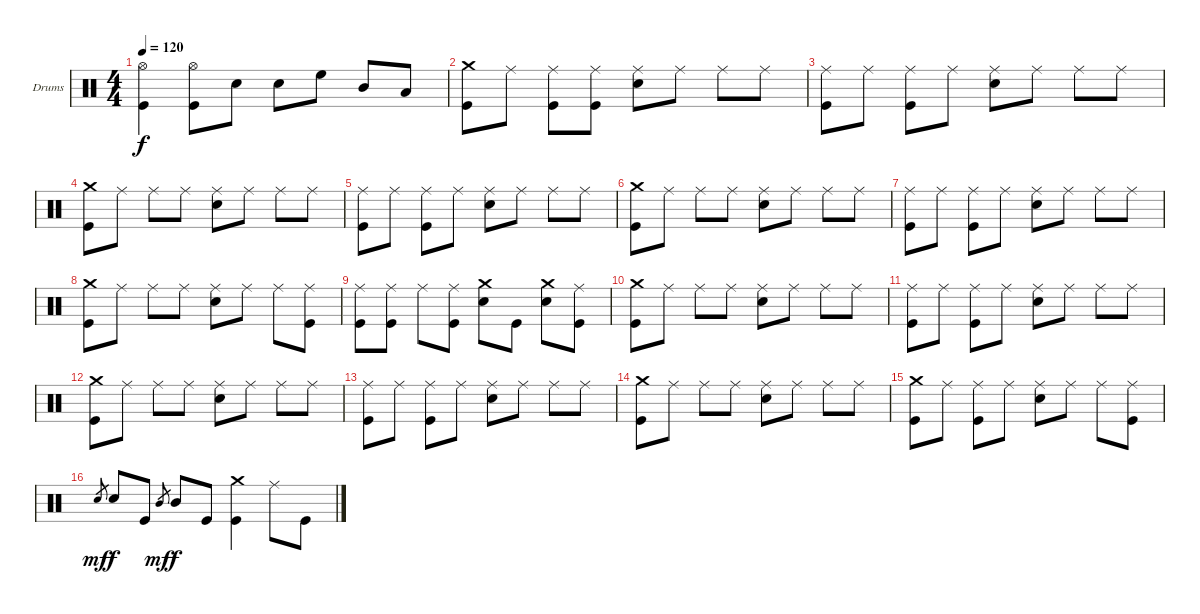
\bracketExtendMode groupsimilarinstruments
\firstSystemTrackNameOrientation horizontal
\otherSystemsTrackNameOrientation horizontal
\track ("Drumkit (Christoph)" "Drums") {instrument percussion}
\staff {score}
\articulation defaults
\ts (4 4)
\tempo 120
\clef neutral
\ks c
("Hi-Hat (open)" "Kick (hit)").4{dy f} ("Hi-Hat (open)" "Kick (hit)").8 "Snare (hit) 2".8 "Snare (hit) 2".8 "High Floor Tom (hit)".8 "Mid Tom (hit)".8 "Low Tom (hit)".8 |
("Crash medium (hit)" "Kick (hit)").8 "Ride (middle)".8 ("Ride (middle)" "Kick (hit)").8 ("Ride (middle)" "Kick (hit)").8 ("Ride (middle)" "Snare (hit) 2").8 "Ride (middle)".8 "Ride (middle)".8 "Ride (middle)".8 |
("Ride (middle)" "Kick (hit)").8 "Ride (middle)".8 ("Ride (middle)" "Kick (hit)").8 "Ride (middle)".8 ("Ride (middle)" "Snare (hit) 2").8 "Ride (middle)".8 "Ride (middle)".8 "Ride (middle)".8 |
("Crash medium (hit)" "Kick (hit)").8 "Ride (middle)".8 "Ride (middle)".8 "Ride (middle)".8 ("Ride (middle)" "Snare (hit) 2").8 "Ride (middle)".8 "Ride (middle)".8 "Ride (middle)".8 |
("Ride (middle)" "Kick (hit)").8 "Ride (middle)".8 ("Ride (middle)" "Kick (hit)").8 "Ride (middle)".8 ("Ride (middle)" "Snare (hit) 2").8 "Ride (middle)".8 "Ride (middle)".8 "Ride (middle)".8 |
("Crash medium (hit)" "Kick (hit)").8 "Ride (middle)".8 "Ride (middle)".8 "Ride (middle)".8 ("Ride (middle)" "Snare (hit) 2").8 "Ride (middle)".8 "Ride (middle)".8 "Ride (middle)".8 |
("Ride (middle)" "Kick (hit)").8 "Ride (middle)".8 ("Ride (middle)" "Kick (hit)").8 "Ride (middle)".8 ("Ride (middle)" "Snare (hit) 2").8 "Ride (middle)".8 "Ride (middle)".8 "Ride (middle)".8 |
("Crash medium (hit)" "Kick (hit)").8 "Ride (middle)".8 "Ride (middle)".8 "Ride (middle)".8 ("Ride (middle)" "Snare (hit) 2").8 "Ride (middle)".8 "Ride (middle)".8 ("Ride (middle)" "Kick (hit)").8 |
("Ride (middle)" "Kick (hit)").8 ("Ride (middle)" "Kick (hit)").8 "Ride (middle)".8 ("Ride (middle)" "Kick (hit)").8 ("Crash medium (hit)" "Snare (hit) 2").8 "Kick (hit)".8 ("Crash medium (hit)" "Snare (hit) 2").8 ("Ride (middle)" "Kick (hit)").8 |
("Crash medium (hit)" "Kick (hit)").8 "Ride (middle)".8 "Ride (middle)".8 "Ride (middle)".8 ("Ride (middle)" "Snare (hit) 2").8 "Ride (middle)".8 "Ride (middle)".8 "Ride (middle)".8 |
("Ride (middle)" "Kick (hit)").8 "Ride (middle)".8 ("Ride (middle)" "Kick (hit)").8 "Ride (middle)".8 ("Ride (middle)" "Snare (hit) 2").8 "Ride (middle)".8 "Ride (middle)".8 "Ride (middle)".8 |
("Crash medium (hit)" "Kick (hit)").8 "Ride (middle)".8 "Ride (middle)".8 "Ride (middle)".8 ("Ride (middle)" "Snare (hit) 2").8 "Ride (middle)".8 "Ride (middle)".8 "Ride (middle)".8 |
("Ride (middle)" "Kick (hit)").8 "Ride (middle)".8 ("Ride (middle)" "Kick (hit)").8 "Ride (middle)".8 ("Ride (middle)" "Snare (hit) 2").8 "Ride (middle)".8 "Ride (middle)".8 "Ride (middle)".8 |
("Crash medium (hit)" "Kick (hit)").8 "Ride (middle)".8 "Ride (middle)".8 "Ride (middle)".8 ("Ride (middle)" "Snare (hit) 2").8 "Ride (middle)".8 "Ride (middle)".8 "Ride (middle)".8 |
("Crash medium (hit)" "Kick (hit)").8 "Ride (middle)".8 ("Ride (middle)" "Kick (hit)").8 "Ride (middle)".8 ("Ride (middle)" "Snare (hit) 2").8 "Ride (middle)".8 "Ride (middle)".8 ("Ride (middle)" "Kick (hit)").8 |
"Snare (hit) 2".8{gr dy mf} "Snare (hit) 2".8{dy f} "Kick (hit)".8 "Mid Tom (hit)".8{gr dy mf} "Mid Tom (hit)".8{dy f} "Kick (hit)".8 ("Crash medium (hit)" "Kick (hit)").4 "Ride (middle)".8 "Kick (hit)".8
